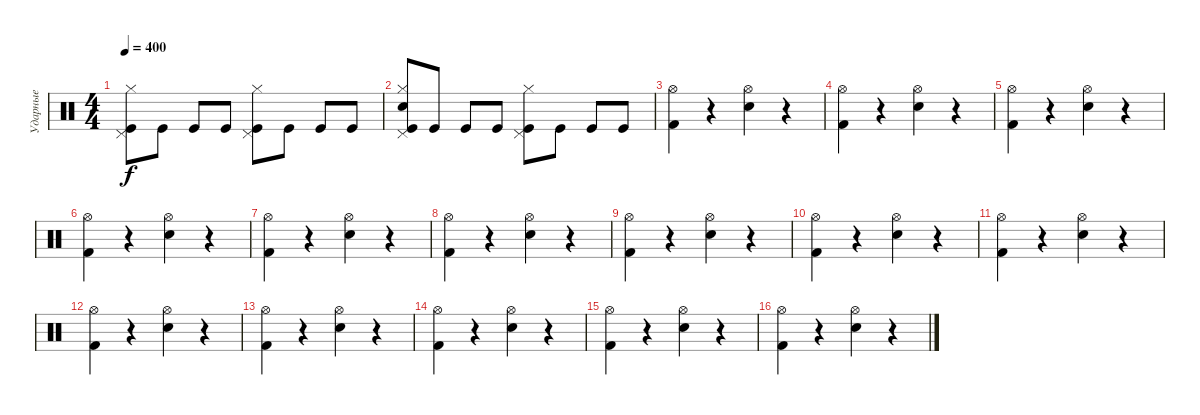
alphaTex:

\track ("Ударные" "Ударные") {instrument percussion}
\staff {score}
\articulation defaults
\ts (4 4)
\tempo 400
\clef neutral
\ks c
("Kick (hit)" "Pedal Hi-Hat (hit)" "Hi-Hat (closed)").8{dy f} "Kick (hit)".8 "Kick (hit)".8 "Kick (hit)".8 ("Kick (hit)" "Hi-Hat (closed)" "Pedal Hi-Hat (hit)").8 "Kick (hit)".8 "Kick (hit)".8 "Kick (hit)".8 |
("Kick (hit)" "Electric Snare (hit)" "Hi-Hat (closed)" "Pedal Hi-Hat (hit)").8 "Kick (hit)".8 "Kick (hit)".8 "Kick (hit)".8 ("Kick (hit)" "Hi-Hat (closed)" "Pedal Hi-Hat (hit)").8 "Kick (hit)".8 "Kick (hit)".8 "Kick (hit)".8 |
("Kick (hit) 2" "Hi-Hat (open)").4 r.4 ("Electric Snare (hit)" "Hi-Hat (open)").4 r.4 |
("Kick (hit) 2" "Hi-Hat (open)").4 r.4 ("Electric Snare (hit)" "Hi-Hat (open)").4 r.4 |
("Kick (hit) 2" "Hi-Hat (open)").4 r.4 ("Electric Snare (hit)" "Hi-Hat (open)").4 r.4 |
("Kick (hit) 2" "Hi-Hat (open)").4 r.4 ("Electric Snare (hit)" "Hi-Hat (open)").4 r.4 |
("Kick (hit) 2" "Hi-Hat (open)").4 r.4 ("Electric Snare (hit)" "Hi-Hat (open)").4 r.4 |
("Kick (hit) 2" "Hi-Hat (open)").4 r.4 ("Electric Snare (hit)" "Hi-Hat (open)").4 r.4 |
("Kick (hit) 2" "Hi-Hat (open)").4 r.4 ("Electric Snare (hit)" "Hi-Hat (open)").4 r.4 |
("Kick (hit) 2" "Hi-Hat (open)").4 r.4 ("Electric Snare (hit)" "Hi-Hat (open)").4 r.4 |
("Kick (hit) 2" "Hi-Hat (open)").4 r.4 ("Electric Snare (hit)" "Hi-Hat (open)").4 r.4 |
("Kick (hit) 2" "Hi-Hat (open)").4 r.4 ("Electric Snare (hit)" "Hi-Hat (open)").4 r.4 |
("Kick (hit) 2" "Hi-Hat (open)").4 r.4 ("Electric Snare (hit)" "Hi-Hat (open)").4 r.4 |
("Kick (hit) 2" "Hi-Hat (open)").4 r.4 ("Electric Snare (hit)" "Hi-Hat (open)").4 r.4 |
("Kick (hit) 2" "Hi-Hat (open)").4 r.4 ("Electric Snare (hit)" "Hi-Hat (open)").4 r.4 |
("Kick (hit) 2" "Hi-Hat (open)").4 r.4 ("Electric Snare (hit)" "Hi-Hat (open)").4 r.4
